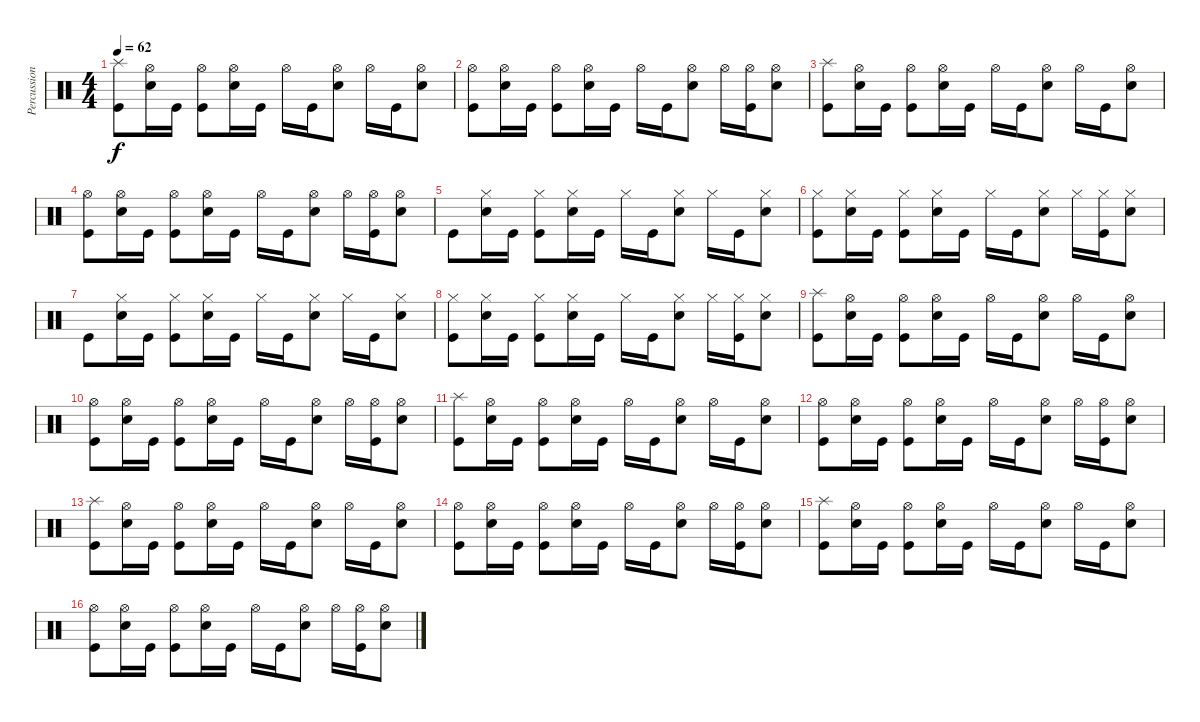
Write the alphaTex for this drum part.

\track ("Percussion" "Percussion") {instrument percussion}
\staff {score}
\articulation defaults
\ts (4 4)
\tempo 62
\clef neutral
\ks c
("Splash (hit)" "Kick (hit)").8{dy f} ("Hi-Hat (open)" "Electric Snare (hit)").16 "Kick (hit)".16 ("Hi-Hat (open)" "Kick (hit)").8 ("Hi-Hat (open)" "Electric Snare (hit)").16 "Kick (hit)".16 "Hi-Hat (open)".16 "Kick (hit)".16 ("Hi-Hat (open)" "Electric Snare (hit)").8 "Hi-Hat (open)".16 "Kick (hit)".16 ("Hi-Hat (open)" "Electric Snare (hit)").8 |
("Hi-Hat (open)" "Kick (hit)").8 ("Hi-Hat (open)" "Electric Snare (hit)").16 "Kick (hit)".16 ("Hi-Hat (open)" "Kick (hit)").8 ("Hi-Hat (open)" "Electric Snare (hit)").16 "Kick (hit)".16 "Hi-Hat (open)".16 "Kick (hit)".16 ("Hi-Hat (open)" "Electric Snare (hit)").8 "Hi-Hat (open)".16 ("Hi-Hat (open)" "Kick (hit)").16 ("Hi-Hat (open)" "Electric Snare (hit)").8 |
("Splash (hit)" "Kick (hit)").8 ("Hi-Hat (open)" "Electric Snare (hit)").16 "Kick (hit)".16 ("Hi-Hat (open)" "Kick (hit)").8 ("Hi-Hat (open)" "Electric Snare (hit)").16 "Kick (hit)".16 "Hi-Hat (open)".16 "Kick (hit)".16 ("Hi-Hat (open)" "Electric Snare (hit)").8 "Hi-Hat (open)".16 "Kick (hit)".16 ("Hi-Hat (open)" "Electric Snare (hit)").8 |
("Hi-Hat (open)" "Kick (hit)").8 ("Hi-Hat (open)" "Electric Snare (hit)").16 "Kick (hit)".16 ("Hi-Hat (open)" "Kick (hit)").8 ("Hi-Hat (open)" "Electric Snare (hit)").16 "Kick (hit)".16 "Hi-Hat (open)".16 "Kick (hit)".16 ("Hi-Hat (open)" "Electric Snare (hit)").8 "Hi-Hat (open)".16 ("Hi-Hat (open)" "Kick (hit)").16 ("Hi-Hat (open)" "Electric Snare (hit)").8 |
"Kick (hit)".8 ("Hi-Hat (closed)" "Electric Snare (hit)").16 "Kick (hit)".16 ("Hi-Hat (closed)" "Kick (hit)").8 ("Hi-Hat (closed)" "Electric Snare (hit)").16 "Kick (hit)".16 "Hi-Hat (closed)".16 "Kick (hit)".16 ("Hi-Hat (closed)" "Electric Snare (hit)").8 "Hi-Hat (closed)".16 "Kick (hit)".16 ("Hi-Hat (closed)" "Electric Snare (hit)").8 |
("Hi-Hat (closed)" "Kick (hit)").8 ("Hi-Hat (closed)" "Electric Snare (hit)").16 "Kick (hit)".16 ("Hi-Hat (closed)" "Kick (hit)").8 ("Hi-Hat (closed)" "Electric Snare (hit)").16 "Kick (hit)".16 "Hi-Hat (closed)".16 "Kick (hit)".16 ("Hi-Hat (closed)" "Electric Snare (hit)").8 "Hi-Hat (closed)".16 ("Hi-Hat (closed)" "Kick (hit)").16 ("Hi-Hat (closed)" "Electric Snare (hit)").8 |
"Kick (hit)".8 ("Hi-Hat (closed)" "Electric Snare (hit)").16 "Kick (hit)".16 ("Hi-Hat (closed)" "Kick (hit)").8 ("Hi-Hat (closed)" "Electric Snare (hit)").16 "Kick (hit)".16 "Hi-Hat (closed)".16 "Kick (hit)".16 ("Hi-Hat (closed)" "Electric Snare (hit)").8 "Hi-Hat (closed)".16 "Kick (hit)".16 ("Hi-Hat (closed)" "Electric Snare (hit)").8 |
("Hi-Hat (closed)" "Kick (hit)").8 ("Hi-Hat (closed)" "Electric Snare (hit)").16 "Kick (hit)".16 ("Hi-Hat (closed)" "Kick (hit)").8 ("Hi-Hat (closed)" "Electric Snare (hit)").16 "Kick (hit)".16 "Hi-Hat (closed)".16 "Kick (hit)".16 ("Hi-Hat (closed)" "Electric Snare (hit)").8 "Hi-Hat (closed)".16 ("Hi-Hat (closed)" "Kick (hit)").16 ("Hi-Hat (closed)" "Electric Snare (hit)").8 |
("Splash (hit)" "Kick (hit)").8 ("Hi-Hat (open)" "Electric Snare (hit)").16 "Kick (hit)".16 ("Hi-Hat (open)" "Kick (hit)").8 ("Hi-Hat (open)" "Electric Snare (hit)").16 "Kick (hit)".16 "Hi-Hat (open)".16 "Kick (hit)".16 ("Hi-Hat (open)" "Electric Snare (hit)").8 "Hi-Hat (open)".16 "Kick (hit)".16 ("Hi-Hat (open)" "Electric Snare (hit)").8 |
("Hi-Hat (open)" "Kick (hit)").8 ("Hi-Hat (open)" "Electric Snare (hit)").16 "Kick (hit)".16 ("Hi-Hat (open)" "Kick (hit)").8 ("Hi-Hat (open)" "Electric Snare (hit)").16 "Kick (hit)".16 "Hi-Hat (open)".16 "Kick (hit)".16 ("Hi-Hat (open)" "Electric Snare (hit)").8 "Hi-Hat (open)".16 ("Hi-Hat (open)" "Kick (hit)").16 ("Hi-Hat (open)" "Electric Snare (hit)").8 |
("Splash (hit)" "Kick (hit)").8 ("Hi-Hat (open)" "Electric Snare (hit)").16 "Kick (hit)".16 ("Hi-Hat (open)" "Kick (hit)").8 ("Hi-Hat (open)" "Electric Snare (hit)").16 "Kick (hit)".16 "Hi-Hat (open)".16 "Kick (hit)".16 ("Hi-Hat (open)" "Electric Snare (hit)").8 "Hi-Hat (open)".16 "Kick (hit)".16 ("Hi-Hat (open)" "Electric Snare (hit)").8 |
("Hi-Hat (open)" "Kick (hit)").8 ("Hi-Hat (open)" "Electric Snare (hit)").16 "Kick (hit)".16 ("Hi-Hat (open)" "Kick (hit)").8 ("Hi-Hat (open)" "Electric Snare (hit)").16 "Kick (hit)".16 "Hi-Hat (open)".16 "Kick (hit)".16 ("Hi-Hat (open)" "Electric Snare (hit)").8 "Hi-Hat (open)".16 ("Hi-Hat (open)" "Kick (hit)").16 ("Hi-Hat (open)" "Electric Snare (hit)").8 |
("Splash (hit)" "Kick (hit)").8 ("Hi-Hat (open)" "Electric Snare (hit)").16 "Kick (hit)".16 ("Hi-Hat (open)" "Kick (hit)").8 ("Hi-Hat (open)" "Electric Snare (hit)").16 "Kick (hit)".16 "Hi-Hat (open)".16 "Kick (hit)".16 ("Hi-Hat (open)" "Electric Snare (hit)").8 "Hi-Hat (open)".16 "Kick (hit)".16 ("Hi-Hat (open)" "Electric Snare (hit)").8 |
("Hi-Hat (open)" "Kick (hit)").8 ("Hi-Hat (open)" "Electric Snare (hit)").16 "Kick (hit)".16 ("Hi-Hat (open)" "Kick (hit)").8 ("Hi-Hat (open)" "Electric Snare (hit)").16 "Kick (hit)".16 "Hi-Hat (open)".16 "Kick (hit)".16 ("Hi-Hat (open)" "Electric Snare (hit)").8 "Hi-Hat (open)".16 ("Hi-Hat (open)" "Kick (hit)").16 ("Hi-Hat (open)" "Electric Snare (hit)").8 |
("Splash (hit)" "Kick (hit)").8 ("Hi-Hat (open)" "Electric Snare (hit)").16 "Kick (hit)".16 ("Hi-Hat (open)" "Kick (hit)").8 ("Hi-Hat (open)" "Electric Snare (hit)").16 "Kick (hit)".16 "Hi-Hat (open)".16 "Kick (hit)".16 ("Hi-Hat (open)" "Electric Snare (hit)").8 "Hi-Hat (open)".16 "Kick (hit)".16 ("Hi-Hat (open)" "Electric Snare (hit)").8 |
("Hi-Hat (open)" "Kick (hit)").8 ("Hi-Hat (open)" "Electric Snare (hit)").16 "Kick (hit)".16 ("Hi-Hat (open)" "Kick (hit)").8 ("Hi-Hat (open)" "Electric Snare (hit)").16 "Kick (hit)".16 "Hi-Hat (open)".16 "Kick (hit)".16 ("Hi-Hat (open)" "Electric Snare (hit)").8 "Hi-Hat (open)".16 ("Hi-Hat (open)" "Kick (hit)").16 ("Hi-Hat (open)" "Electric Snare (hit)").8
